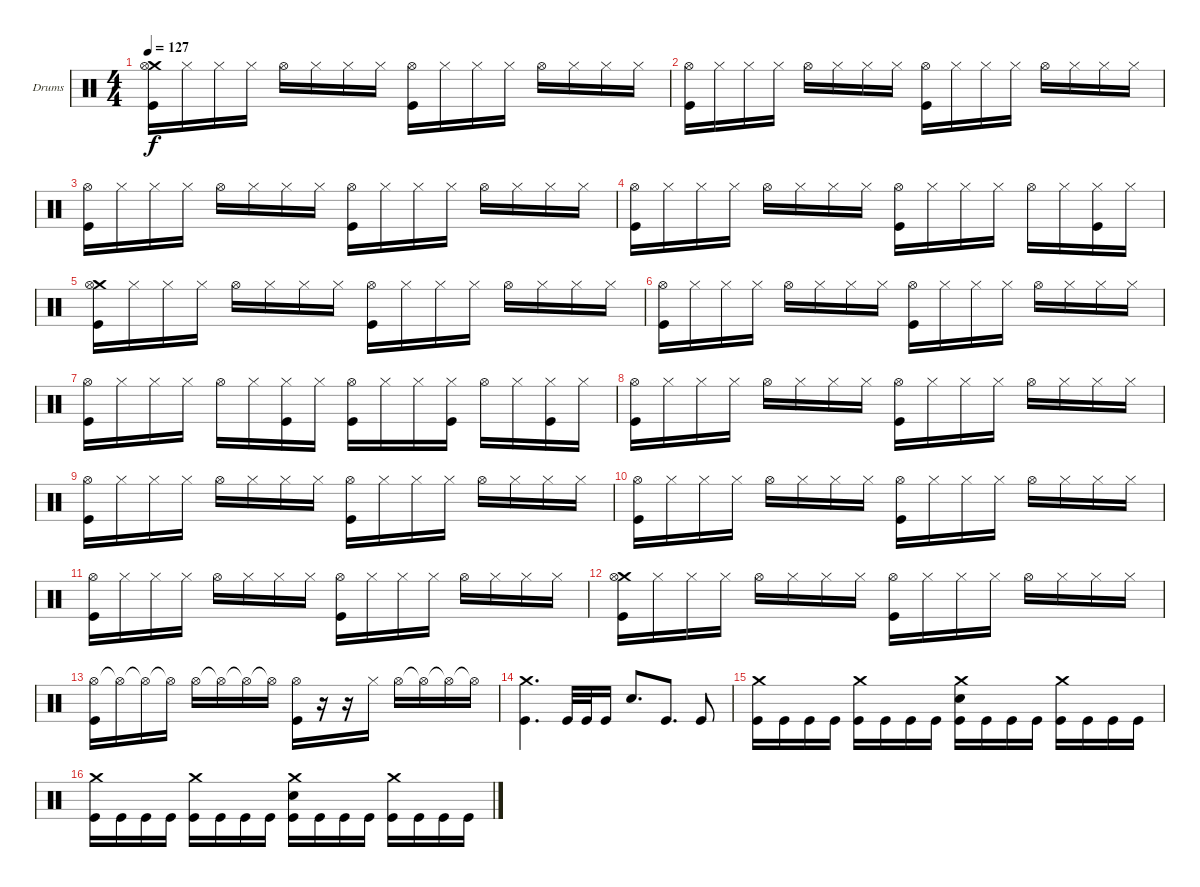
\bracketExtendMode groupsimilarinstruments
\firstSystemTrackNameOrientation horizontal
\otherSystemsTrackNameOrientation horizontal
\track ("Drumkit" "Drums") {instrument percussion}
\staff {score}
\articulation defaults
\ts (4 4)
\tempo 127
\clef neutral
\ks c
("Crash medium (hit)" "Hi-Hat (open)" "Kick (hit)").16{dy f} "Hi-Hat (closed)".16 "Hi-Hat (closed)".16 "Hi-Hat (closed)".16 "Hi-Hat (open)".16 "Hi-Hat (closed)".16 "Hi-Hat (closed)".16 "Hi-Hat (closed)".16 ("Hi-Hat (open)" "Kick (hit)").16 "Hi-Hat (closed)".16 "Hi-Hat (closed)".16 "Hi-Hat (closed)".16 "Hi-Hat (open)".16 "Hi-Hat (closed)".16 "Hi-Hat (closed)".16 "Hi-Hat (closed)".16 |
("Hi-Hat (open)" "Kick (hit)").16 "Hi-Hat (closed)".16 "Hi-Hat (closed)".16 "Hi-Hat (closed)".16 "Hi-Hat (open)".16 "Hi-Hat (closed)".16 "Hi-Hat (closed)".16 "Hi-Hat (closed)".16 ("Hi-Hat (open)" "Kick (hit)").16 "Hi-Hat (closed)".16 "Hi-Hat (closed)".16 "Hi-Hat (closed)".16 "Hi-Hat (open)".16 "Hi-Hat (closed)".16 "Hi-Hat (closed)".16 "Hi-Hat (closed)".16 |
("Hi-Hat (open)" "Kick (hit)").16 "Hi-Hat (closed)".16 "Hi-Hat (closed)".16 "Hi-Hat (closed)".16 "Hi-Hat (open)".16 "Hi-Hat (closed)".16 "Hi-Hat (closed)".16 "Hi-Hat (closed)".16 ("Hi-Hat (open)" "Kick (hit)").16 "Hi-Hat (closed)".16 "Hi-Hat (closed)".16 "Hi-Hat (closed)".16 "Hi-Hat (open)".16 "Hi-Hat (closed)".16 "Hi-Hat (closed)".16 "Hi-Hat (closed)".16 |
("Hi-Hat (open)" "Kick (hit)").16 "Hi-Hat (closed)".16 "Hi-Hat (closed)".16 "Hi-Hat (closed)".16 "Hi-Hat (open)".16 "Hi-Hat (closed)".16 "Hi-Hat (closed)".16 "Hi-Hat (closed)".16 ("Hi-Hat (open)" "Kick (hit)").16 "Hi-Hat (closed)".16 "Hi-Hat (closed)".16 "Hi-Hat (closed)".16 "Hi-Hat (open)".16 "Hi-Hat (closed)".16 ("Hi-Hat (closed)" "Kick (hit)").16 "Hi-Hat (closed)".16 |
("Crash medium (hit)" "Hi-Hat (open)" "Kick (hit)").16 "Hi-Hat (closed)".16 "Hi-Hat (closed)".16 "Hi-Hat (closed)".16 "Hi-Hat (open)".16 "Hi-Hat (closed)".16 "Hi-Hat (closed)".16 "Hi-Hat (closed)".16 ("Hi-Hat (open)" "Kick (hit)").16 "Hi-Hat (closed)".16 "Hi-Hat (closed)".16 "Hi-Hat (closed)".16 "Hi-Hat (open)".16 "Hi-Hat (closed)".16 "Hi-Hat (closed)".16 "Hi-Hat (closed)".16 |
("Hi-Hat (open)" "Kick (hit)").16 "Hi-Hat (closed)".16 "Hi-Hat (closed)".16 "Hi-Hat (closed)".16 "Hi-Hat (open)".16 "Hi-Hat (closed)".16 "Hi-Hat (closed)".16 "Hi-Hat (closed)".16 ("Hi-Hat (open)" "Kick (hit)").16 "Hi-Hat (closed)".16 "Hi-Hat (closed)".16 "Hi-Hat (closed)".16 "Hi-Hat (open)".16 "Hi-Hat (closed)".16 "Hi-Hat (closed)".16 "Hi-Hat (closed)".16 |
("Hi-Hat (open)" "Kick (hit)").16 "Hi-Hat (closed)".16 "Hi-Hat (closed)".16 "Hi-Hat (closed)".16 "Hi-Hat (open)".16 "Hi-Hat (closed)".16 ("Hi-Hat (closed)" "Kick (hit)").16 "Hi-Hat (closed)".16 ("Hi-Hat (open)" "Kick (hit)").16 "Hi-Hat (closed)".16 "Hi-Hat (closed)".16 ("Hi-Hat (closed)" "Kick (hit)").16 "Hi-Hat (open)".16 "Hi-Hat (closed)".16 ("Hi-Hat (closed)" "Kick (hit)").16 "Hi-Hat (closed)".16 |
("Hi-Hat (open)" "Kick (hit)").16 "Hi-Hat (closed)".16 "Hi-Hat (closed)".16 "Hi-Hat (closed)".16 "Hi-Hat (open)".16 "Hi-Hat (closed)".16 "Hi-Hat (closed)".16 "Hi-Hat (closed)".16 ("Hi-Hat (open)" "Kick (hit)").16 "Hi-Hat (closed)".16 "Hi-Hat (closed)".16 "Hi-Hat (closed)".16 "Hi-Hat (open)".16 "Hi-Hat (closed)".16 "Hi-Hat (closed)".16 "Hi-Hat (closed)".16 |
("Hi-Hat (open)" "Kick (hit)").16 "Hi-Hat (closed)".16 "Hi-Hat (closed)".16 "Hi-Hat (closed)".16 "Hi-Hat (open)".16 "Hi-Hat (closed)".16 "Hi-Hat (closed)".16 "Hi-Hat (closed)".16 ("Hi-Hat (open)" "Kick (hit)").16 "Hi-Hat (closed)".16 "Hi-Hat (closed)".16 "Hi-Hat (closed)".16 "Hi-Hat (open)".16 "Hi-Hat (closed)".16 "Hi-Hat (closed)".16 "Hi-Hat (closed)".16 |
("Hi-Hat (open)" "Kick (hit)").16 "Hi-Hat (closed)".16 "Hi-Hat (closed)".16 "Hi-Hat (closed)".16 "Hi-Hat (open)".16 "Hi-Hat (closed)".16 "Hi-Hat (closed)".16 "Hi-Hat (closed)".16 ("Hi-Hat (open)" "Kick (hit)").16 "Hi-Hat (closed)".16 "Hi-Hat (closed)".16 "Hi-Hat (closed)".16 "Hi-Hat (open)".16 "Hi-Hat (closed)".16 "Hi-Hat (closed)".16 "Hi-Hat (closed)".16 |
("Hi-Hat (open)" "Kick (hit)").16 "Hi-Hat (closed)".16 "Hi-Hat (closed)".16 "Hi-Hat (closed)".16 "Hi-Hat (open)".16 "Hi-Hat (closed)".16 "Hi-Hat (closed)".16 "Hi-Hat (closed)".16 ("Hi-Hat (open)" "Kick (hit)").16 "Hi-Hat (closed)".16 "Hi-Hat (closed)".16 "Hi-Hat (closed)".16 "Hi-Hat (open)".16 "Hi-Hat (closed)".16 "Hi-Hat (closed)".16 "Hi-Hat (closed)".16 |
("Crash medium (hit)" "Hi-Hat (open)" "Kick (hit)").16 "Hi-Hat (closed)".16 "Hi-Hat (closed)".16 "Hi-Hat (closed)".16 "Hi-Hat (open)".16 "Hi-Hat (closed)".16 "Hi-Hat (closed)".16 "Hi-Hat (closed)".16 ("Hi-Hat (open)" "Kick (hit)").16 "Hi-Hat (closed)".16 "Hi-Hat (closed)".16 "Hi-Hat (closed)".16 "Hi-Hat (open)".16 "Hi-Hat (closed)".16 "Hi-Hat (closed)".16 "Hi-Hat (closed)".16 |
("Hi-Hat (open)" "Kick (hit)").16 "Hi-Hat (open)"{t}.16 "Hi-Hat (open)"{t}.16 "Hi-Hat (open)"{t}.16 "Hi-Hat (open)".16 "Hi-Hat (open)"{t}.16 "Hi-Hat (open)"{t}.16 "Hi-Hat (open)"{t}.16 ("Hi-Hat (open)" "Kick (hit)").16 r.16 r.16 "Hi-Hat (closed)".16 "Hi-Hat (open)".16 "Hi-Hat (open)"{t}.16 "Hi-Hat (open)"{t}.16 "Hi-Hat (open)"{t}.16 |
("Crash medium (hit)" "Kick (hit)").4{d} "Kick (hit)".32 "Kick (hit)".32 "Kick (hit)".16 "Snare (hit) 2".8{d} "Kick (hit)".8{d} "Kick (hit)".8 |
("Crash medium (hit)" "Kick (hit)").16 "Kick (hit)".16 "Kick (hit)".16 "Kick (hit)".16 ("Crash medium (hit)" "Kick (hit)").16 "Kick (hit)".16 "Kick (hit)".16 "Kick (hit)".16 ("Crash medium (hit)" "Snare (hit) 2" "Kick (hit)").16 "Kick (hit)".16 "Kick (hit)".16 "Kick (hit)".16 ("Crash medium (hit)" "Kick (hit)").16 "Kick (hit)".16 "Kick (hit)".16 "Kick (hit)".16 |
("Crash medium (hit)" "Kick (hit)").16 "Kick (hit)".16 "Kick (hit)".16 "Kick (hit)".16 ("Crash medium (hit)" "Kick (hit)").16 "Kick (hit)".16 "Kick (hit)".16 "Kick (hit)".16 ("Crash medium (hit)" "Snare (hit) 2" "Kick (hit)").16 "Kick (hit)".16 "Kick (hit)".16 "Kick (hit)".16 ("Crash medium (hit)" "Kick (hit)").16 "Kick (hit)".16 "Kick (hit)".16 "Kick (hit)".16
